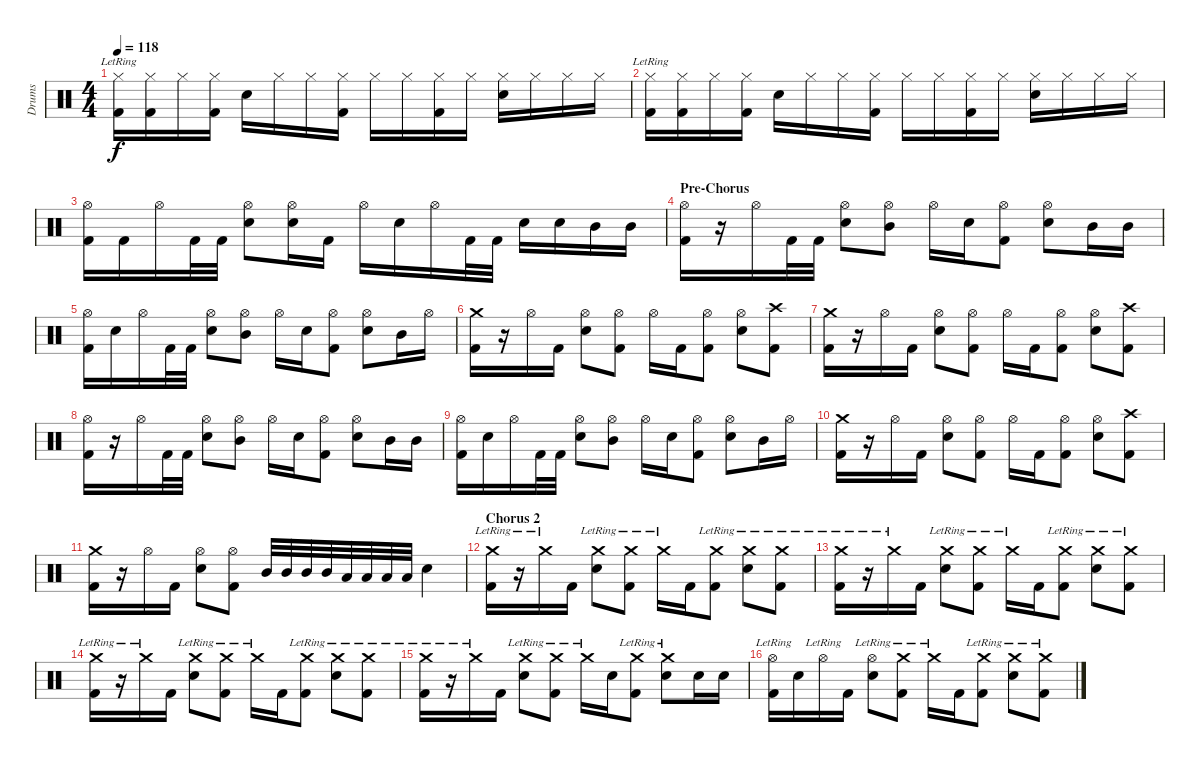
\track ("Drums" "Drums") {instrument percussion}
\staff {score}
\articulation defaults
\ts (4 4)
\tempo 118
\clef neutral
\ks c
("Hi-Hat (closed)"{lr} "Kick (hit) 2").16{dy f} ("Hi-Hat (closed)" "Kick (hit) 2").16 "Hi-Hat (closed)".16 ("Hi-Hat (closed)" "Kick (hit) 2").16 "Electric Snare (hit)".16 "Hi-Hat (closed)".16 "Hi-Hat (closed)".16 ("Hi-Hat (closed)" "Kick (hit) 2").16 "Hi-Hat (closed)".16 "Hi-Hat (closed)".16 ("Hi-Hat (closed)" "Kick (hit) 2").16 "Hi-Hat (closed)".16 ("Hi-Hat (closed)" "Electric Snare (hit)").16 "Hi-Hat (closed)".16 "Hi-Hat (closed)".16 "Hi-Hat (closed)".16 |
("Hi-Hat (closed)"{lr} "Kick (hit) 2").16 ("Hi-Hat (closed)" "Kick (hit) 2").16 "Hi-Hat (closed)".16 ("Hi-Hat (closed)" "Kick (hit) 2").16 "Electric Snare (hit)".16 "Hi-Hat (closed)".16 "Hi-Hat (closed)".16 ("Hi-Hat (closed)" "Kick (hit) 2").16 "Hi-Hat (closed)".16 "Hi-Hat (closed)".16 ("Hi-Hat (closed)" "Kick (hit) 2").16 "Hi-Hat (closed)".16 ("Hi-Hat (closed)" "Electric Snare (hit)").16 "Hi-Hat (closed)".16 "Hi-Hat (closed)".16 "Hi-Hat (closed)".16 |
("Hi-Hat (open)" "Kick (hit) 2").16 "Kick (hit) 2".16 "Hi-Hat (open)".16 "Kick (hit) 2".32 "Kick (hit) 2".32 ("Hi-Hat (open)" "Electric Snare (hit)").8 ("Hi-Hat (open)" "Electric Snare (hit)").16 "Kick (hit) 2".16 "Hi-Hat (open)".16 "Electric Snare (hit)".16 "Hi-Hat (open)".16 "Kick (hit) 2".32 "Kick (hit) 2".32 "Electric Snare (hit)".16 "Electric Snare (hit)".16 "Mid Tom (hit)".16 "Mid Tom (hit)".16 |
\section ("" "Pre-Chorus")
("Hi-Hat (open)" "Kick (hit) 2").16 r.16 "Hi-Hat (open)".16 "Kick (hit) 2".32 "Kick (hit) 2".32 ("Hi-Hat (open)" "Electric Snare (hit)").8 ("Hi-Hat (open)" "Mid Tom (hit)").8 "Hi-Hat (open)".16 "Electric Snare (hit)".16 ("Hi-Hat (open)" "Kick (hit) 2").8 ("Hi-Hat (open)" "Electric Snare (hit)").8 "Mid Tom (hit)".16 "Mid Tom (hit)".16 |
("Hi-Hat (open)" "Kick (hit) 2").16 "Electric Snare (hit)".16 "Hi-Hat (open)".16 "Kick (hit) 2".32 "Kick (hit) 2".32 ("Hi-Hat (open)" "Electric Snare (hit)").8 ("Hi-Hat (open)" "Mid Tom (hit)").8 "Hi-Hat (open)".16 "Electric Snare (hit)".16 ("Hi-Hat (open)" "Kick (hit) 2").8 ("Hi-Hat (open)" "Electric Snare (hit)").8 "Mid Tom (hit)".16 "Hi-Hat (open)".16 |
("Crash medium (hit)" "Kick (hit) 2").16 r.16 "Hi-Hat (open)".16 "Kick (hit) 2".16 ("Hi-Hat (open)" "Electric Snare (hit)").8 ("Hi-Hat (open)" "Kick (hit) 2").8 "Hi-Hat (open)".16 "Kick (hit) 2".16 ("Hi-Hat (open)" "Kick (hit) 2").8 ("Hi-Hat (open)" "Electric Snare (hit)").8 ("Crash high (hit)" "Kick (hit) 2").8 |
("Crash medium (hit)" "Kick (hit) 2").16 r.16 "Hi-Hat (open)".16 "Kick (hit) 2".16 ("Hi-Hat (open)" "Electric Snare (hit)").8 ("Hi-Hat (open)" "Kick (hit) 2").8 "Hi-Hat (open)".16 "Kick (hit) 2".16 ("Hi-Hat (open)" "Kick (hit) 2").8 ("Hi-Hat (open)" "Electric Snare (hit)").8 ("Crash high (hit)" "Kick (hit) 2").8 |
("Hi-Hat (open)" "Kick (hit) 2").16 r.16 "Hi-Hat (open)".16 "Kick (hit) 2".32 "Kick (hit) 2".32 ("Hi-Hat (open)" "Electric Snare (hit)").8 ("Hi-Hat (open)" "Mid Tom (hit)").8 "Hi-Hat (open)".16 "Electric Snare (hit)".16 ("Hi-Hat (open)" "Kick (hit) 2").8 ("Hi-Hat (open)" "Electric Snare (hit)").8 "Mid Tom (hit)".16 "Mid Tom (hit)".16 |
("Hi-Hat (open)" "Kick (hit) 2").16 "Electric Snare (hit)".16 "Hi-Hat (open)".16 "Kick (hit) 2".32 "Kick (hit) 2".32 ("Hi-Hat (open)" "Electric Snare (hit)").8 ("Hi-Hat (open)" "Mid Tom (hit)").8 "Hi-Hat (open)".16 "Electric Snare (hit)".16 ("Hi-Hat (open)" "Kick (hit) 2").8 ("Hi-Hat (open)" "Electric Snare (hit)").8 "Mid Tom (hit)".16 "Hi-Hat (open)".16 |
("Crash medium (hit)" "Kick (hit) 2").16 r.16 "Hi-Hat (open)".16 "Kick (hit) 2".16 ("Hi-Hat (open)" "Electric Snare (hit)").8 ("Hi-Hat (open)" "Kick (hit) 2").8 "Hi-Hat (open)".16 "Kick (hit) 2".16 ("Hi-Hat (open)" "Kick (hit) 2").8 ("Hi-Hat (open)" "Electric Snare (hit)").8 ("Crash high (hit)" "Kick (hit) 2").8 |
("Crash medium (hit)" "Kick (hit) 2").16 r.16 "Hi-Hat (open)".16 "Kick (hit) 2".16 ("Hi-Hat (open)" "Electric Snare (hit)").8 ("Hi-Hat (open)" "Kick (hit) 2").8 "Mid Tom (hit)".32 "Mid Tom (hit)".32 "Mid Tom (hit)".32 "Mid Tom (hit)".32 "Low Floor Tom (hit)".32 "Low Floor Tom (hit)".32 "Low Floor Tom (hit)".32 "Low Floor Tom (hit)".32 "Electric Snare (hit)".4 |
\section ("" "Chorus 2")
("Crash medium (hit)"{lr} "Kick (hit) 2").16 r.16 "Crash medium (hit)"{lr}.16 "Kick (hit) 2".16 ("Crash medium (hit)"{lr} "Electric Snare (hit)").8 ("Crash medium (hit)"{lr} "Kick (hit) 2").8 "Crash medium (hit)"{lr}.16 "Kick (hit) 2".16 ("Crash medium (hit)"{lr} "Kick (hit) 2").8 ("Crash medium (hit)"{lr} "Electric Snare (hit)").8 ("Crash medium (hit)"{lr} "Kick (hit) 2").8 |
("Crash medium (hit)"{lr} "Kick (hit) 2").16 r.16 "Crash medium (hit)"{lr}.16 "Kick (hit) 2".16 ("Crash medium (hit)"{lr} "Electric Snare (hit)").8 ("Crash medium (hit)"{lr} "Kick (hit) 2").8 "Crash medium (hit)"{lr}.16 "Kick (hit) 2".16 ("Crash medium (hit)"{lr} "Kick (hit) 2").8 ("Crash medium (hit)"{lr} "Electric Snare (hit)").8 ("Crash medium (hit)"{lr} "Kick (hit) 2").8 |
("Crash medium (hit)"{lr} "Kick (hit) 2").16 r.16 "Crash medium (hit)"{lr}.16 "Kick (hit) 2".16 ("Crash medium (hit)"{lr} "Electric Snare (hit)").8 ("Crash medium (hit)"{lr} "Kick (hit) 2").8 "Crash medium (hit)"{lr}.16 "Kick (hit) 2".16 ("Crash medium (hit)"{lr} "Kick (hit) 2").8 ("Crash medium (hit)"{lr} "Electric Snare (hit)").8 ("Crash medium (hit)"{lr} "Kick (hit) 2").8 |
("Crash medium (hit)"{lr} "Kick (hit) 2").16 r.16 "Crash medium (hit)"{lr}.16 "Kick (hit) 2".16 ("Crash medium (hit)"{lr} "Electric Snare (hit)").8 ("Crash medium (hit)"{lr} "Kick (hit) 2").8 "Crash medium (hit)"{lr}.16 "Electric Snare (hit)".16 ("Crash medium (hit)"{lr} "Kick (hit) 2").8 ("Crash medium (hit)"{lr} "Electric Snare (hit)").8 "Electric Snare (hit)".16 "Electric Snare (hit)".16 |
("Hi-Hat (open)"{lr} "Kick (hit) 2").16 "Electric Snare (hit)".16 "Hi-Hat (open)"{lr}.16 "Kick (hit) 2".16 ("Hi-Hat (open)"{lr} "Electric Snare (hit)").8 ("Crash medium (hit)"{lr} "Kick (hit) 2").8 "Crash medium (hit)"{lr}.16 "Kick (hit) 2".16 ("Crash medium (hit)"{lr} "Kick (hit) 2").8 ("Crash medium (hit)"{lr} "Electric Snare (hit)").8 ("Crash medium (hit)"{lr} "Kick (hit) 2").8
